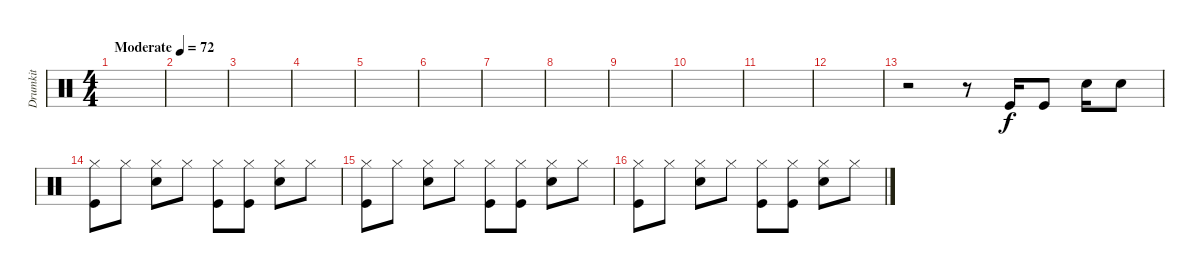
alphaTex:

\track ("Drumkit" "Drumkit") {instrument percussion}
\staff {score}
\articulation defaults
\ts (4 4)
\tempo (72 "Moderate")
\clef neutral
\ks c
|
|
|
|
|
|
|
|
|
|
|
|
r.2 r.8 "Kick (hit)".16 "Kick (hit)".8 "Snare (hit) 2".16 "Snare (hit) 2".8 |
("Hi-Hat (closed)" "Kick (hit)").8 "Hi-Hat (closed)".8 ("Hi-Hat (closed)" "Snare (hit) 2").8 "Hi-Hat (closed)".8 ("Hi-Hat (closed)" "Kick (hit)").8 ("Hi-Hat (closed)" "Kick (hit)").8 ("Hi-Hat (closed)" "Snare (hit) 2").8 "Hi-Hat (closed)".8 |
("Hi-Hat (closed)" "Kick (hit)").8 "Hi-Hat (closed)".8 ("Hi-Hat (closed)" "Snare (hit) 2").8 "Hi-Hat (closed)".8 ("Hi-Hat (closed)" "Kick (hit)").8 ("Hi-Hat (closed)" "Kick (hit)").8 ("Hi-Hat (closed)" "Snare (hit) 2").8 "Hi-Hat (closed)".8 |
("Hi-Hat (closed)" "Kick (hit)").8 "Hi-Hat (closed)".8 ("Hi-Hat (closed)" "Snare (hit) 2").8 "Hi-Hat (closed)".8 ("Hi-Hat (closed)" "Kick (hit)").8 ("Hi-Hat (closed)" "Kick (hit)").8 ("Hi-Hat (closed)" "Snare (hit) 2").8 "Hi-Hat (closed)".8
